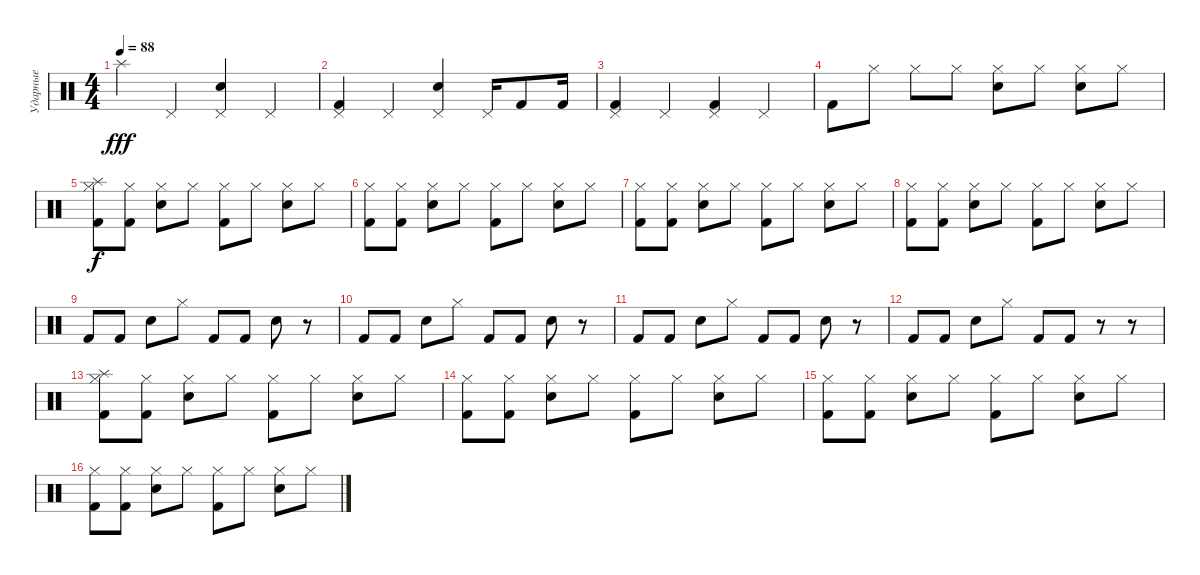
\track ("Ударные" "Ударные") {instrument percussion}
\staff {score}
\articulation defaults
\ts (4 4)
\tempo 88
\clef neutral
\ks c "Splash (hit)".4{dy fff} "Pedal Hi-Hat (hit)".4
("Pedal Hi-Hat (hit)" "Snare (hit) 2").4 "Pedal Hi-Hat (hit)".4 |
("Pedal Hi-Hat (hit)" "Kick (hit) 2").4 "Pedal Hi-Hat (hit)".4 ("Pedal Hi-Hat (hit)" "Snare (hit) 2").4 "Pedal Hi-Hat (hit)".16 "Kick (hit) 2".8 "Kick (hit) 2".16 |
("Pedal Hi-Hat (hit)" "Kick (hit) 2").4 "Pedal Hi-Hat (hit)".4 ("Pedal Hi-Hat (hit)" "Kick (hit) 2").4 "Pedal Hi-Hat (hit)".4 |
"Kick (hit) 2".8 "Hi-Hat (closed)".8 "Hi-Hat (closed)".8 "Hi-Hat (closed)".8 ("Hi-Hat (closed)" "Snare (hit) 2").8 "Hi-Hat (closed)".8 ("Hi-Hat (closed)" "Snare (hit) 2").8 "Hi-Hat (closed)".8 |
("Splash (hit)" "Hi-Hat (closed)" "Kick (hit) 2").8{dy f} ("Hi-Hat (closed)" "Kick (hit) 2").8 ("Hi-Hat (closed)" "Snare (hit) 2").8 "Hi-Hat (closed)".8 ("Hi-Hat (closed)" "Kick (hit) 2").8 "Hi-Hat (closed)".8 ("Hi-Hat (closed)" "Snare (hit) 2").8 "Hi-Hat (closed)".8 |
("Hi-Hat (closed)" "Kick (hit) 2").8 ("Hi-Hat (closed)" "Kick (hit) 2").8 ("Hi-Hat (closed)" "Snare (hit) 2").8 "Hi-Hat (closed)".8 ("Hi-Hat (closed)" "Kick (hit) 2").8 "Hi-Hat (closed)".8 ("Hi-Hat (closed)" "Snare (hit) 2").8 "Hi-Hat (closed)".8 |
("Hi-Hat (closed)" "Kick (hit) 2").8 ("Hi-Hat (closed)" "Kick (hit) 2").8 ("Hi-Hat (closed)" "Snare (hit) 2").8 "Hi-Hat (closed)".8 ("Hi-Hat (closed)" "Kick (hit) 2").8 "Hi-Hat (closed)".8 ("Hi-Hat (closed)" "Snare (hit) 2").8 "Hi-Hat (closed)".8 |
("Hi-Hat (closed)" "Kick (hit) 2").8 ("Hi-Hat (closed)" "Kick (hit) 2").8 ("Hi-Hat (closed)" "Snare (hit) 2").8 "Hi-Hat (closed)".8 ("Hi-Hat (closed)" "Kick (hit) 2").8 "Hi-Hat (closed)".8 ("Hi-Hat (closed)" "Snare (hit) 2").8 "Hi-Hat (closed)".8 |
"Kick (hit) 2".8 "Kick (hit) 2".8 "Snare (hit) 2".8 "Hi-Hat (closed)".8 "Kick (hit) 2".8 "Kick (hit) 2".8 "Snare (hit) 2".8 r.8 |
"Kick (hit) 2".8 "Kick (hit) 2".8 "Snare (hit) 2".8 "Hi-Hat (closed)".8 "Kick (hit) 2".8 "Kick (hit) 2".8 "Snare (hit) 2".8 r.8 |
"Kick (hit) 2".8 "Kick (hit) 2".8 "Snare (hit) 2".8 "Hi-Hat (closed)".8 "Kick (hit) 2".8 "Kick (hit) 2".8 "Snare (hit) 2".8 r.8 |
"Kick (hit) 2".8 "Kick (hit) 2".8 "Snare (hit) 2".8 "Hi-Hat (closed)".8 "Kick (hit) 2".8 "Kick (hit) 2".8 r.8 r.8 |
("Splash (hit)" "Hi-Hat (closed)" "Kick (hit) 2").8 ("Hi-Hat (closed)" "Kick (hit) 2").8 ("Hi-Hat (closed)" "Snare (hit) 2").8 "Hi-Hat (closed)".8 ("Hi-Hat (closed)" "Kick (hit) 2").8 "Hi-Hat (closed)".8 ("Hi-Hat (closed)" "Snare (hit) 2").8 "Hi-Hat (closed)".8 |
("Hi-Hat (closed)" "Kick (hit) 2").8 ("Hi-Hat (closed)" "Kick (hit) 2").8 ("Hi-Hat (closed)" "Snare (hit) 2").8 "Hi-Hat (closed)".8 ("Hi-Hat (closed)" "Kick (hit) 2").8 "Hi-Hat (closed)".8 ("Hi-Hat (closed)" "Snare (hit) 2").8 "Hi-Hat (closed)".8 |
("Hi-Hat (closed)" "Kick (hit) 2").8 ("Hi-Hat (closed)" "Kick (hit) 2").8 ("Hi-Hat (closed)" "Snare (hit) 2").8 "Hi-Hat (closed)".8 ("Hi-Hat (closed)" "Kick (hit) 2").8 "Hi-Hat (closed)".8 ("Hi-Hat (closed)" "Snare (hit) 2").8 "Hi-Hat (closed)".8 |
("Hi-Hat (closed)" "Kick (hit) 2").8 ("Hi-Hat (closed)" "Kick (hit) 2").8 ("Hi-Hat (closed)" "Snare (hit) 2").8 "Hi-Hat (closed)".8 ("Hi-Hat (closed)" "Kick (hit) 2").8 "Hi-Hat (closed)".8 ("Hi-Hat (closed)" "Snare (hit) 2").8 "Hi-Hat (closed)".8
